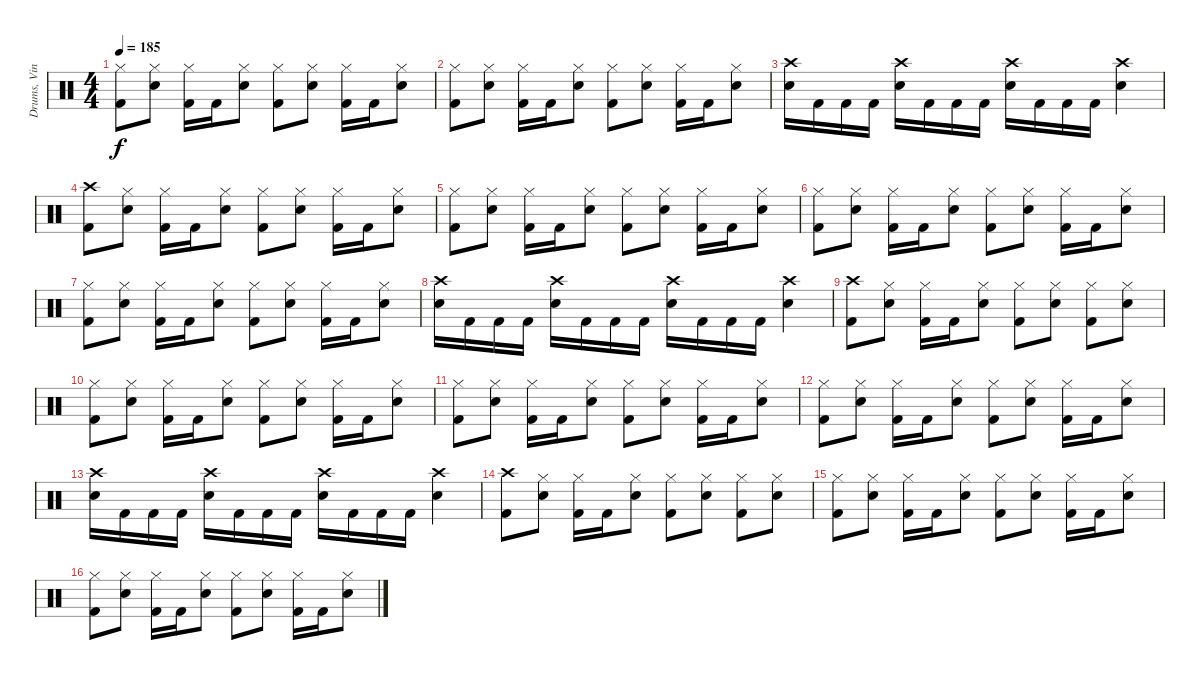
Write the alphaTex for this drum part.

\track ("Drums, Vinnie" "Drums, Vin") {instrument percussion}
\staff {score}
\articulation defaults
\ts (4 4)
\tempo 185
\clef neutral
\ks c
("Hi-Hat (closed)" "Kick (hit) 2").8{dy f} ("Hi-Hat (closed)" "Electric Snare (hit)").8 ("Hi-Hat (closed)" "Kick (hit) 2").16 "Kick (hit) 2".16 ("Hi-Hat (closed)" "Electric Snare (hit)").8 ("Hi-Hat (closed)" "Kick (hit) 2").8 ("Hi-Hat (closed)" "Electric Snare (hit)").8 ("Hi-Hat (closed)" "Kick (hit) 2").16 "Kick (hit) 2".16 ("Hi-Hat (closed)" "Electric Snare (hit)").8 |
("Hi-Hat (closed)" "Kick (hit) 2").8 ("Hi-Hat (closed)" "Electric Snare (hit)").8 ("Hi-Hat (closed)" "Kick (hit) 2").16 "Kick (hit) 2".16 ("Hi-Hat (closed)" "Electric Snare (hit)").8 ("Hi-Hat (closed)" "Kick (hit) 2").8 ("Hi-Hat (closed)" "Electric Snare (hit)").8 ("Hi-Hat (closed)" "Kick (hit) 2").16 "Kick (hit) 2".16 ("Hi-Hat (closed)" "Electric Snare (hit)").8 |
("Crash high (hit)" "Electric Snare (hit)").16 "Kick (hit) 2".16 "Kick (hit) 2".16 "Kick (hit) 2".16 ("Crash high (hit)" "Electric Snare (hit)").16 "Kick (hit) 2".16 "Kick (hit) 2".16 "Kick (hit) 2".16 ("Crash high (hit)" "Electric Snare (hit)").16 "Kick (hit) 2".16 "Kick (hit) 2".16 "Kick (hit) 2".16 ("Crash high (hit)" "Electric Snare (hit)").4 |
("Crash high (hit)" "Kick (hit) 2").8 ("Hi-Hat (closed)" "Electric Snare (hit)").8 ("Hi-Hat (closed)" "Kick (hit) 2").16 "Kick (hit) 2".16 ("Hi-Hat (closed)" "Electric Snare (hit)").8 ("Hi-Hat (closed)" "Kick (hit) 2").8 ("Hi-Hat (closed)" "Electric Snare (hit)").8 ("Hi-Hat (closed)" "Kick (hit) 2").16 "Kick (hit) 2".16 ("Hi-Hat (closed)" "Electric Snare (hit)").8 |
("Hi-Hat (closed)" "Kick (hit) 2").8 ("Hi-Hat (closed)" "Electric Snare (hit)").8 ("Hi-Hat (closed)" "Kick (hit) 2").16 "Kick (hit) 2".16 ("Hi-Hat (closed)" "Electric Snare (hit)").8 ("Hi-Hat (closed)" "Kick (hit) 2").8 ("Hi-Hat (closed)" "Electric Snare (hit)").8 ("Hi-Hat (closed)" "Kick (hit) 2").16 "Kick (hit) 2".16 ("Hi-Hat (closed)" "Electric Snare (hit)").8 |
("Hi-Hat (closed)" "Kick (hit) 2").8 ("Hi-Hat (closed)" "Electric Snare (hit)").8 ("Hi-Hat (closed)" "Kick (hit) 2").16 "Kick (hit) 2".16 ("Hi-Hat (closed)" "Electric Snare (hit)").8 ("Hi-Hat (closed)" "Kick (hit) 2").8 ("Hi-Hat (closed)" "Electric Snare (hit)").8 ("Hi-Hat (closed)" "Kick (hit) 2").16 "Kick (hit) 2".16 ("Hi-Hat (closed)" "Electric Snare (hit)").8 |
("Hi-Hat (closed)" "Kick (hit) 2").8 ("Hi-Hat (closed)" "Electric Snare (hit)").8 ("Hi-Hat (closed)" "Kick (hit) 2").16 "Kick (hit) 2".16 ("Hi-Hat (closed)" "Electric Snare (hit)").8 ("Hi-Hat (closed)" "Kick (hit) 2").8 ("Hi-Hat (closed)" "Electric Snare (hit)").8 ("Hi-Hat (closed)" "Kick (hit) 2").16 "Kick (hit) 2".16 ("Hi-Hat (closed)" "Electric Snare (hit)").8 |
("Crash high (hit)" "Electric Snare (hit)").16 "Kick (hit) 2".16 "Kick (hit) 2".16 "Kick (hit) 2".16 ("Crash high (hit)" "Electric Snare (hit)").16 "Kick (hit) 2".16 "Kick (hit) 2".16 "Kick (hit) 2".16 ("Crash high (hit)" "Electric Snare (hit)").16 "Kick (hit) 2".16 "Kick (hit) 2".16 "Kick (hit) 2".16 ("Crash high (hit)" "Electric Snare (hit)").4 |
("Crash high (hit)" "Kick (hit) 2").8 ("Hi-Hat (closed)" "Electric Snare (hit)").8 ("Hi-Hat (closed)" "Kick (hit) 2").16 "Kick (hit) 2".16 ("Hi-Hat (closed)" "Electric Snare (hit)").8 ("Hi-Hat (closed)" "Kick (hit) 2").8 ("Hi-Hat (closed)" "Electric Snare (hit)").8 ("Hi-Hat (closed)" "Kick (hit) 2").8 ("Hi-Hat (closed)" "Electric Snare (hit)").8 |
("Hi-Hat (closed)" "Kick (hit) 2").8 ("Hi-Hat (closed)" "Electric Snare (hit)").8 ("Hi-Hat (closed)" "Kick (hit) 2").16 "Kick (hit) 2".16 ("Hi-Hat (closed)" "Electric Snare (hit)").8 ("Hi-Hat (closed)" "Kick (hit) 2").8 ("Hi-Hat (closed)" "Electric Snare (hit)").8 ("Hi-Hat (closed)" "Kick (hit) 2").16 "Kick (hit) 2".16 ("Hi-Hat (closed)" "Electric Snare (hit)").8 |
("Hi-Hat (closed)" "Kick (hit) 2").8 ("Hi-Hat (closed)" "Electric Snare (hit)").8 ("Hi-Hat (closed)" "Kick (hit) 2").16 "Kick (hit) 2".16 ("Hi-Hat (closed)" "Electric Snare (hit)").8 ("Hi-Hat (closed)" "Kick (hit) 2").8 ("Hi-Hat (closed)" "Electric Snare (hit)").8 ("Hi-Hat (closed)" "Kick (hit) 2").16 "Kick (hit) 2".16 ("Hi-Hat (closed)" "Electric Snare (hit)").8 |
("Hi-Hat (closed)" "Kick (hit) 2").8 ("Hi-Hat (closed)" "Electric Snare (hit)").8 ("Hi-Hat (closed)" "Kick (hit) 2").16 "Kick (hit) 2".16 ("Hi-Hat (closed)" "Electric Snare (hit)").8 ("Hi-Hat (closed)" "Kick (hit) 2").8 ("Hi-Hat (closed)" "Electric Snare (hit)").8 ("Hi-Hat (closed)" "Kick (hit) 2").16 "Kick (hit) 2".16 ("Hi-Hat (closed)" "Electric Snare (hit)").8 |
("Crash high (hit)" "Electric Snare (hit)").16 "Kick (hit) 2".16 "Kick (hit) 2".16 "Kick (hit) 2".16 ("Crash high (hit)" "Electric Snare (hit)").16 "Kick (hit) 2".16 "Kick (hit) 2".16 "Kick (hit) 2".16 ("Crash high (hit)" "Electric Snare (hit)").16 "Kick (hit) 2".16 "Kick (hit) 2".16 "Kick (hit) 2".16 ("Crash high (hit)" "Electric Snare (hit)").4 |
("Crash high (hit)" "Kick (hit) 2").8 ("Hi-Hat (closed)" "Electric Snare (hit)").8 ("Hi-Hat (closed)" "Kick (hit) 2").16 "Kick (hit) 2".16 ("Hi-Hat (closed)" "Electric Snare (hit)").8 ("Hi-Hat (closed)" "Kick (hit) 2").8 ("Hi-Hat (closed)" "Electric Snare (hit)").8 ("Hi-Hat (closed)" "Kick (hit) 2").8 ("Hi-Hat (closed)" "Electric Snare (hit)").8 |
("Hi-Hat (closed)" "Kick (hit) 2").8 ("Hi-Hat (closed)" "Electric Snare (hit)").8 ("Hi-Hat (closed)" "Kick (hit) 2").16 "Kick (hit) 2".16 ("Hi-Hat (closed)" "Electric Snare (hit)").8 ("Hi-Hat (closed)" "Kick (hit) 2").8 ("Hi-Hat (closed)" "Electric Snare (hit)").8 ("Hi-Hat (closed)" "Kick (hit) 2").16 "Kick (hit) 2".16 ("Hi-Hat (closed)" "Electric Snare (hit)").8 |
("Hi-Hat (closed)" "Kick (hit) 2").8 ("Hi-Hat (closed)" "Electric Snare (hit)").8 ("Hi-Hat (closed)" "Kick (hit) 2").16 "Kick (hit) 2".16 ("Hi-Hat (closed)" "Electric Snare (hit)").8 ("Hi-Hat (closed)" "Kick (hit) 2").8 ("Hi-Hat (closed)" "Electric Snare (hit)").8 ("Hi-Hat (closed)" "Kick (hit) 2").16 "Kick (hit) 2".16 ("Hi-Hat (closed)" "Electric Snare (hit)").8
